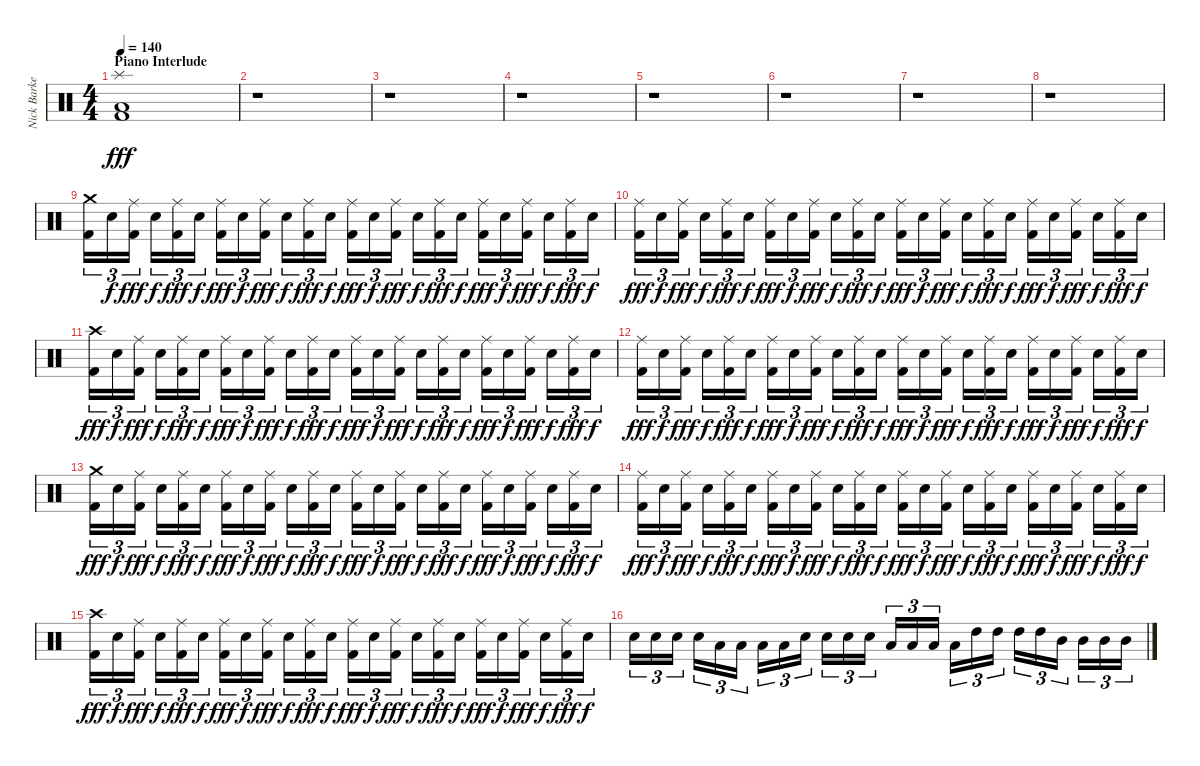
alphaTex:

\track ("Nick Barker - Drums - Percussion" "Nick Barke") {instrument percussion}
\staff {score}
\articulation defaults
\ts (4 4)
\section ("" "Piano Interlude")
\tempo 140
\clef neutral
\ks c
("Kick (hit) 2" "Low Floor Tom (hit)" "Splash (hit)").1{dy fff} |
r.1 |
r.1 |
r.1 |
r.1 |
r.1 |
r.1 |
r.1 |
("Kick (hit) 2" "Crash medium (hit)").16{tu (3 2)} "Snare (hit) 2".16{tu (3 2) dy f} ("Kick (hit) 2" "Ride (middle)").16{tu (3 2) dy fff} "Snare (hit) 2".16{tu (3 2) dy f} ("Kick (hit) 2" "Ride (middle)").16{tu (3 2) dy fff} "Snare (hit) 2".16{tu (3 2) dy f} ("Kick (hit) 2" "Ride (middle)").16{tu (3 2) dy fff} "Snare (hit) 2".16{tu (3 2) dy f} ("Kick (hit) 2" "Ride (middle)").16{tu (3 2) dy fff} "Snare (hit) 2".16{tu (3 2) dy f} ("Kick (hit) 2" "Ride (middle)").16{tu (3 2) dy fff} "Snare (hit) 2".16{tu (3 2) dy f} ("Kick (hit) 2" "Ride (middle)").16{tu (3 2) dy fff} "Snare (hit) 2".16{tu (3 2) dy f} ("Kick (hit) 2" "Ride (middle)").16{tu (3 2) dy fff} "Snare (hit) 2".16{tu (3 2) dy f} ("Kick (hit) 2" "Ride (middle)").16{tu (3 2) dy fff} "Snare (hit) 2".16{tu (3 2) dy f} ("Kick (hit) 2" "Ride (middle)").16{tu (3 2) dy fff} "Snare (hit) 2".16{tu (3 2) dy f} ("Kick (hit) 2" "Ride (middle)").16{tu (3 2) dy fff} "Snare (hit) 2".16{tu (3 2) dy f} ("Kick (hit) 2" "Ride (middle)").16{tu (3 2) dy fff} "Snare (hit) 2".16{tu (3 2) dy f} |
("Kick (hit) 2" "Ride (middle)").16{tu (3 2) dy fff} "Snare (hit) 2".16{tu (3 2) dy f} ("Kick (hit) 2" "Ride (middle)").16{tu (3 2) dy fff} "Snare (hit) 2".16{tu (3 2) dy f} ("Kick (hit) 2" "Ride (middle)").16{tu (3 2) dy fff} "Snare (hit) 2".16{tu (3 2) dy f} ("Kick (hit) 2" "Ride (middle)").16{tu (3 2) dy fff} "Snare (hit) 2".16{tu (3 2) dy f} ("Kick (hit) 2" "Ride (middle)").16{tu (3 2) dy fff} "Snare (hit) 2".16{tu (3 2) dy f} ("Kick (hit) 2" "Ride (middle)").16{tu (3 2) dy fff} "Snare (hit) 2".16{tu (3 2) dy f} ("Kick (hit) 2" "Ride (middle)").16{tu (3 2) dy fff} "Snare (hit) 2".16{tu (3 2) dy f} ("Kick (hit) 2" "Ride (middle)").16{tu (3 2) dy fff} "Snare (hit) 2".16{tu (3 2) dy f} ("Kick (hit) 2" "Ride (middle)").16{tu (3 2) dy fff} "Snare (hit) 2".16{tu (3 2) dy f} ("Kick (hit) 2" "Ride (middle)").16{tu (3 2) dy fff} "Snare (hit) 2".16{tu (3 2) dy f} ("Kick (hit) 2" "Ride (middle)").16{tu (3 2) dy fff} "Snare (hit) 2".16{tu (3 2) dy f} ("Kick (hit) 2" "Ride (middle)").16{tu (3 2) dy fff} "Snare (hit) 2".16{tu (3 2) dy f} |
("Kick (hit) 2" "Crash high (hit)").16{tu (3 2) dy fff} "Snare (hit) 2".16{tu (3 2) dy f} ("Kick (hit) 2" "Ride (middle)").16{tu (3 2) dy fff} "Snare (hit) 2".16{tu (3 2) dy f} ("Kick (hit) 2" "Ride (middle)").16{tu (3 2) dy fff} "Snare (hit) 2".16{tu (3 2) dy f} ("Kick (hit) 2" "Ride (middle)").16{tu (3 2) dy fff} "Snare (hit) 2".16{tu (3 2) dy f} ("Kick (hit) 2" "Ride (middle)").16{tu (3 2) dy fff} "Snare (hit) 2".16{tu (3 2) dy f} ("Kick (hit) 2" "Ride (middle)").16{tu (3 2) dy fff} "Snare (hit) 2".16{tu (3 2) dy f} ("Kick (hit) 2" "Ride (middle)").16{tu (3 2) dy fff} "Snare (hit) 2".16{tu (3 2) dy f} ("Kick (hit) 2" "Ride (middle)").16{tu (3 2) dy fff} "Snare (hit) 2".16{tu (3 2) dy f} ("Kick (hit) 2" "Ride (middle)").16{tu (3 2) dy fff} "Snare (hit) 2".16{tu (3 2) dy f} ("Kick (hit) 2" "Ride (middle)").16{tu (3 2) dy fff} "Snare (hit) 2".16{tu (3 2) dy f} ("Kick (hit) 2" "Ride (middle)").16{tu (3 2) dy fff} "Snare (hit) 2".16{tu (3 2) dy f} ("Kick (hit) 2" "Ride (middle)").16{tu (3 2) dy fff} "Snare (hit) 2".16{tu (3 2) dy f} |
("Kick (hit) 2" "Ride (middle)").16{tu (3 2) dy fff} "Snare (hit) 2".16{tu (3 2) dy f} ("Kick (hit) 2" "Ride (middle)").16{tu (3 2) dy fff} "Snare (hit) 2".16{tu (3 2) dy f} ("Kick (hit) 2" "Ride (middle)").16{tu (3 2) dy fff} "Snare (hit) 2".16{tu (3 2) dy f} ("Kick (hit) 2" "Ride (middle)").16{tu (3 2) dy fff} "Snare (hit) 2".16{tu (3 2) dy f} ("Kick (hit) 2" "Ride (middle)").16{tu (3 2) dy fff} "Snare (hit) 2".16{tu (3 2) dy f} ("Kick (hit) 2" "Ride (middle)").16{tu (3 2) dy fff} "Snare (hit) 2".16{tu (3 2) dy f} ("Kick (hit) 2" "Ride (middle)").16{tu (3 2) dy fff} "Snare (hit) 2".16{tu (3 2) dy f} ("Kick (hit) 2" "Ride (middle)").16{tu (3 2) dy fff} "Snare (hit) 2".16{tu (3 2) dy f} ("Kick (hit) 2" "Ride (middle)").16{tu (3 2) dy fff} "Snare (hit) 2".16{tu (3 2) dy f} ("Kick (hit) 2" "Ride (middle)").16{tu (3 2) dy fff} "Snare (hit) 2".16{tu (3 2) dy f} ("Kick (hit) 2" "Ride (middle)").16{tu (3 2) dy fff} "Snare (hit) 2".16{tu (3 2) dy f} ("Kick (hit) 2" "Ride (middle)").16{tu (3 2) dy fff} "Snare (hit) 2".16{tu (3 2) dy f} |
("Kick (hit) 2" "Crash medium (hit)").16{tu (3 2) dy fff} "Snare (hit) 2".16{tu (3 2) dy f} ("Kick (hit) 2" "Ride (middle)").16{tu (3 2) dy fff} "Snare (hit) 2".16{tu (3 2) dy f} ("Kick (hit) 2" "Ride (middle)").16{tu (3 2) dy fff} "Snare (hit) 2".16{tu (3 2) dy f} ("Kick (hit) 2" "Ride (middle)").16{tu (3 2) dy fff} "Snare (hit) 2".16{tu (3 2) dy f} ("Kick (hit) 2" "Ride (middle)").16{tu (3 2) dy fff} "Snare (hit) 2".16{tu (3 2) dy f} ("Kick (hit) 2" "Ride (middle)").16{tu (3 2) dy fff} "Snare (hit) 2".16{tu (3 2) dy f} ("Kick (hit) 2" "Ride (middle)").16{tu (3 2) dy fff} "Snare (hit) 2".16{tu (3 2) dy f} ("Kick (hit) 2" "Ride (middle)").16{tu (3 2) dy fff} "Snare (hit) 2".16{tu (3 2) dy f} ("Kick (hit) 2" "Ride (middle)").16{tu (3 2) dy fff} "Snare (hit) 2".16{tu (3 2) dy f} ("Kick (hit) 2" "Ride (middle)").16{tu (3 2) dy fff} "Snare (hit) 2".16{tu (3 2) dy f} ("Kick (hit) 2" "Ride (middle)").16{tu (3 2) dy fff} "Snare (hit) 2".16{tu (3 2) dy f} ("Kick (hit) 2" "Ride (middle)").16{tu (3 2) dy fff} "Snare (hit) 2".16{tu (3 2) dy f} |
("Kick (hit) 2" "Ride (middle)").16{tu (3 2) dy fff} "Snare (hit) 2".16{tu (3 2) dy f} ("Kick (hit) 2" "Ride (middle)").16{tu (3 2) dy fff} "Snare (hit) 2".16{tu (3 2) dy f} ("Kick (hit) 2" "Ride (middle)").16{tu (3 2) dy fff} "Snare (hit) 2".16{tu (3 2) dy f} ("Kick (hit) 2" "Ride (middle)").16{tu (3 2) dy fff} "Snare (hit) 2".16{tu (3 2) dy f} ("Kick (hit) 2" "Ride (middle)").16{tu (3 2) dy fff} "Snare (hit) 2".16{tu (3 2) dy f} ("Kick (hit) 2" "Ride (middle)").16{tu (3 2) dy fff} "Snare (hit) 2".16{tu (3 2) dy f} ("Kick (hit) 2" "Ride (middle)").16{tu (3 2) dy fff} "Snare (hit) 2".16{tu (3 2) dy f} ("Kick (hit) 2" "Ride (middle)").16{tu (3 2) dy fff} "Snare (hit) 2".16{tu (3 2) dy f} ("Kick (hit) 2" "Ride (middle)").16{tu (3 2) dy fff} "Snare (hit) 2".16{tu (3 2) dy f} ("Kick (hit) 2" "Ride (middle)").16{tu (3 2) dy fff} "Snare (hit) 2".16{tu (3 2) dy f} ("Kick (hit) 2" "Ride (middle)").16{tu (3 2) dy fff} "Snare (hit) 2".16{tu (3 2) dy f} ("Kick (hit) 2" "Ride (middle)").16{tu (3 2) dy fff} "Snare (hit) 2".16{tu (3 2) dy f} |
("Kick (hit) 2" "Crash high (hit)").16{tu (3 2) dy fff} "Snare (hit) 2".16{tu (3 2) dy f} ("Kick (hit) 2" "Ride (middle)").16{tu (3 2) dy fff} "Snare (hit) 2".16{tu (3 2) dy f} ("Kick (hit) 2" "Ride (middle)").16{tu (3 2) dy fff} "Snare (hit) 2".16{tu (3 2) dy f} ("Kick (hit) 2" "Ride (middle)").16{tu (3 2) dy fff} "Snare (hit) 2".16{tu (3 2) dy f} ("Kick (hit) 2" "Ride (middle)").16{tu (3 2) dy fff} "Snare (hit) 2".16{tu (3 2) dy f} ("Kick (hit) 2" "Ride (middle)").16{tu (3 2) dy fff} "Snare (hit) 2".16{tu (3 2) dy f} ("Kick (hit) 2" "Ride (middle)").16{tu (3 2) dy fff} "Snare (hit) 2".16{tu (3 2) dy f} ("Kick (hit) 2" "Ride (middle)").16{tu (3 2) dy fff} "Snare (hit) 2".16{tu (3 2) dy f} ("Kick (hit) 2" "Ride (middle)").16{tu (3 2) dy fff} "Snare (hit) 2".16{tu (3 2) dy f} ("Kick (hit) 2" "Ride (middle)").16{tu (3 2) dy fff} "Snare (hit) 2".16{tu (3 2) dy f} ("Kick (hit) 2" "Ride (middle)").16{tu (3 2) dy fff} "Snare (hit) 2".16{tu (3 2) dy f} ("Kick (hit) 2" "Ride (middle)").16{tu (3 2) dy fff} "Snare (hit) 2".16{tu (3 2) dy f} |
"Snare (hit) 2".16{tu (3 2)} "Snare (hit) 2".16{tu (3 2)} "Snare (hit) 2".16{tu (3 2)} "Snare (hit) 2".16{tu (3 2)} "Low Tom (hit)".16{tu (3 2)} "Low Tom (hit)".16{tu (3 2)} "Low Tom (hit)".16{tu (3 2)} "Low Tom (hit)".16{tu (3 2)} "Snare (hit) 2".16{tu (3 2)} "Snare (hit) 2".16{tu (3 2)} "Snare (hit) 2".16{tu (3 2)} "Snare (hit) 2".16{tu (3 2)} "Low Tom (hit)".16{tu (3 2)} "Low Tom (hit)".16{tu (3 2)} "Low Tom (hit)".16{tu (3 2)} "Low Tom (hit)".16{tu (3 2)} "High Tom (hit)".16{tu (3 2)} "High Tom (hit)".16{tu (3 2)} "High Tom (hit)".16{tu (3 2)} "High Tom (hit)".16{tu (3 2)} "Mid Tom (hit)".16{tu (3 2)} "Mid Tom (hit)".16{tu (3 2)} "Mid Tom (hit)".16{tu (3 2)} "Mid Tom (hit)".16{tu (3 2)}
